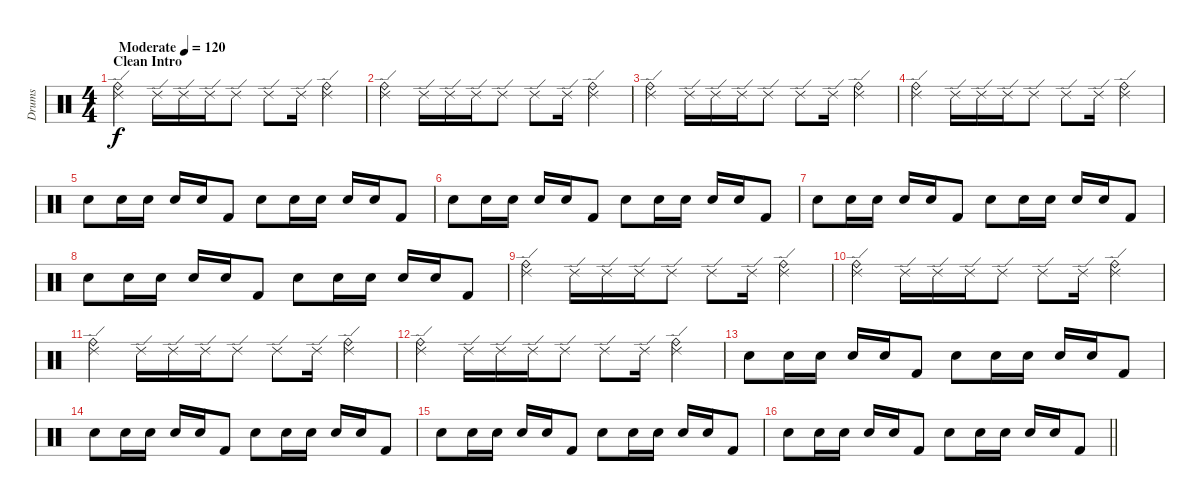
\track ("Drums" "Drums") {instrument percussion}
\staff {score}
\articulation defaults
\ts (4 4)
\section ("" "Clean Intro")
\tempo (120 "Moderate")
\clef neutral
\ks c
("Ride (bell)" "Ride (edge) 2").4{dy f volume 7} "Ride (edge) 2".16 "Ride (edge) 2".16 "Ride (edge) 2".16 "Ride (edge) 2".8 "Ride (edge) 2".8 "Ride (edge) 2".16 ("Ride (edge) 2" "Ride (bell)").4 |
("Ride (bell)" "Ride (edge) 2").4 "Ride (edge) 2".16 "Ride (edge) 2".16 "Ride (edge) 2".16 "Ride (edge) 2".8 "Ride (edge) 2".8 "Ride (edge) 2".16 ("Ride (edge) 2" "Ride (bell)").4 |
("Ride (bell)" "Ride (edge) 2").4 "Ride (edge) 2".16 "Ride (edge) 2".16 "Ride (edge) 2".16 "Ride (edge) 2".8 "Ride (edge) 2".8 "Ride (edge) 2".16 ("Ride (edge) 2" "Ride (bell)").4 |
("Ride (bell)" "Ride (edge) 2").4 "Ride (edge) 2".16 "Ride (edge) 2".16 "Ride (edge) 2".16 "Ride (edge) 2".8 "Ride (edge) 2".8 "Ride (edge) 2".16 ("Ride (edge) 2" "Ride (bell)").4 |
"Snare (hit) 2".8{volume 7} "Snare (hit) 2".16 "Snare (hit) 2".16 "Snare (hit) 2".16 "Snare (hit) 2".16 "Kick (hit) 2".8 "Snare (hit) 2".8 "Snare (hit) 2".16 "Snare (hit) 2".16 "Snare (hit) 2".16 "Snare (hit) 2".16 "Kick (hit) 2".8 |
"Snare (hit) 2".8{volume 7} "Snare (hit) 2".16 "Snare (hit) 2".16 "Snare (hit) 2".16 "Snare (hit) 2".16 "Kick (hit) 2".8 "Snare (hit) 2".8 "Snare (hit) 2".16 "Snare (hit) 2".16 "Snare (hit) 2".16 "Snare (hit) 2".16 "Kick (hit) 2".8 |
"Snare (hit) 2".8{volume 7} "Snare (hit) 2".16 "Snare (hit) 2".16 "Snare (hit) 2".16 "Snare (hit) 2".16 "Kick (hit) 2".8 "Snare (hit) 2".8 "Snare (hit) 2".16 "Snare (hit) 2".16 "Snare (hit) 2".16 "Snare (hit) 2".16 "Kick (hit) 2".8 |
"Snare (hit) 2".8{volume 7} "Snare (hit) 2".16 "Snare (hit) 2".16 "Snare (hit) 2".16 "Snare (hit) 2".16 "Kick (hit) 2".8 "Snare (hit) 2".8 "Snare (hit) 2".16 "Snare (hit) 2".16 "Snare (hit) 2".16 "Snare (hit) 2".16 "Kick (hit) 2".8 |
("Ride (bell)" "Ride (edge) 2").4{volume 7} "Ride (edge) 2".16 "Ride (edge) 2".16 "Ride (edge) 2".16 "Ride (edge) 2".8 "Ride (edge) 2".8 "Ride (edge) 2".16 ("Ride (edge) 2" "Ride (bell)").4 |
("Ride (bell)" "Ride (edge) 2").4 "Ride (edge) 2".16 "Ride (edge) 2".16 "Ride (edge) 2".16 "Ride (edge) 2".8 "Ride (edge) 2".8 "Ride (edge) 2".16 ("Ride (edge) 2" "Ride (bell)").4 |
("Ride (bell)" "Ride (edge) 2").4 "Ride (edge) 2".16 "Ride (edge) 2".16 "Ride (edge) 2".16 "Ride (edge) 2".8 "Ride (edge) 2".8 "Ride (edge) 2".16 ("Ride (edge) 2" "Ride (bell)").4 |
("Ride (bell)" "Ride (edge) 2").4 "Ride (edge) 2".16 "Ride (edge) 2".16 "Ride (edge) 2".16 "Ride (edge) 2".8 "Ride (edge) 2".8 "Ride (edge) 2".16 ("Ride (edge) 2" "Ride (bell)").4 |
"Snare (hit) 2".8{volume 7} "Snare (hit) 2".16 "Snare (hit) 2".16 "Snare (hit) 2".16 "Snare (hit) 2".16 "Kick (hit) 2".8 "Snare (hit) 2".8 "Snare (hit) 2".16 "Snare (hit) 2".16 "Snare (hit) 2".16 "Snare (hit) 2".16 "Kick (hit) 2".8 |
"Snare (hit) 2".8{volume 7} "Snare (hit) 2".16 "Snare (hit) 2".16 "Snare (hit) 2".16 "Snare (hit) 2".16 "Kick (hit) 2".8 "Snare (hit) 2".8 "Snare (hit) 2".16 "Snare (hit) 2".16 "Snare (hit) 2".16 "Snare (hit) 2".16 "Kick (hit) 2".8 |
"Snare (hit) 2".8{volume 7} "Snare (hit) 2".16 "Snare (hit) 2".16 "Snare (hit) 2".16 "Snare (hit) 2".16 "Kick (hit) 2".8 "Snare (hit) 2".8 "Snare (hit) 2".16 "Snare (hit) 2".16 "Snare (hit) 2".16 "Snare (hit) 2".16 "Kick (hit) 2".8 |
\barLineRight lightlight "Snare (hit) 2".8{volume 7} "Snare (hit) 2".16 "Snare (hit) 2".16 "Snare (hit) 2".16 "Snare (hit) 2".16 "Kick (hit) 2".8 "Snare (hit) 2".8 "Snare (hit) 2".16 "Snare (hit) 2".16 "Snare (hit) 2".16 "Snare (hit) 2".16 "Kick (hit) 2".8
